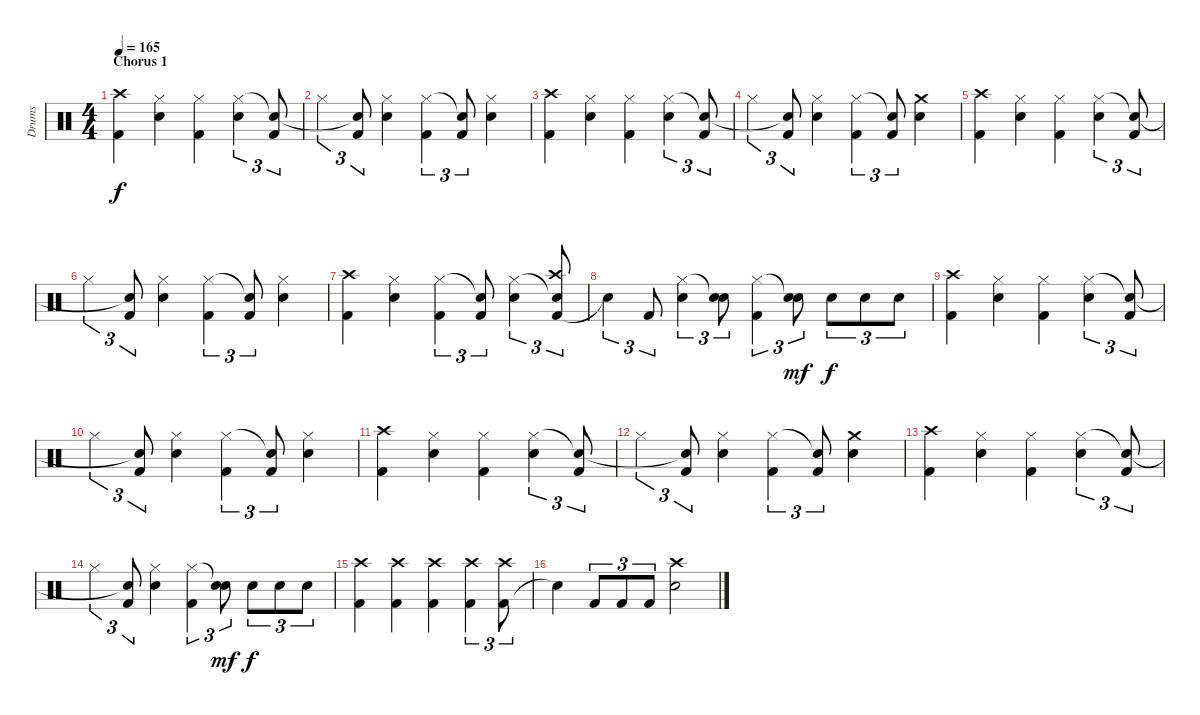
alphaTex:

\track ("Drums" "Drums") {instrument percussion}
\staff {score}
\articulation defaults
\ts (4 4)
\section ("" "Chorus 1")
\tempo 165
\clef neutral
\ks c
("Kick (hit) 2" "Crash high (hit)").4{dy f} ("Snare (hit) 2" "Hi-Hat (closed)").4 ("Kick (hit) 2" "Hi-Hat (closed)").4 ("Snare (hit) 2" "Hi-Hat (closed)").4{tu (3 2)} ("Kick (hit) 2" "Snare (hit)"{t}).8{tu (3 2)} |
"Hi-Hat (closed)".4{tu (3 2)} ("Kick (hit) 2" "Snare (hit)"{t}).8{tu (3 2)} ("Snare (hit) 2" "Hi-Hat (closed)").4 ("Kick (hit) 2" "Hi-Hat (closed)").4{tu (3 2)} ("Kick (hit) 2" "Snare (hit)"{t}).8{tu (3 2)} ("Snare (hit) 2" "Hi-Hat (closed)").4 |
("Kick (hit) 2" "Crash high (hit)").4 ("Snare (hit) 2" "Hi-Hat (closed)").4 ("Kick (hit) 2" "Hi-Hat (closed)").4 ("Snare (hit) 2" "Hi-Hat (closed)").4{tu (3 2)} ("Kick (hit) 2" "Snare (hit)"{t}).8{tu (3 2)} |
"Hi-Hat (closed)".4{tu (3 2)} ("Kick (hit) 2" "Snare (hit)"{t}).8{tu (3 2)} ("Snare (hit) 2" "Hi-Hat (closed)").4 ("Kick (hit) 2" "Hi-Hat (closed)").4{tu (3 2)} ("Kick (hit) 2" "Snare (hit)"{t}).8{tu (3 2)} ("Snare (hit) 2" "Crash medium (hit)").4 |
("Kick (hit) 2" "Crash high (hit)").4 ("Snare (hit) 2" "Hi-Hat (closed)").4 ("Kick (hit) 2" "Hi-Hat (closed)").4 ("Snare (hit) 2" "Hi-Hat (closed)").4{tu (3 2)} ("Kick (hit) 2" "Snare (hit)"{t}).8{tu (3 2)} |
"Hi-Hat (closed)".4{tu (3 2)} ("Kick (hit) 2" "Snare (hit)"{t}).8{tu (3 2)} ("Snare (hit) 2" "Hi-Hat (closed)").4 ("Kick (hit) 2" "Hi-Hat (closed)").4{tu (3 2)} ("Kick (hit) 2" "Snare (hit)"{t}).8{tu (3 2)} ("Snare (hit) 2" "Hi-Hat (closed)").4 |
("Kick (hit) 2" "Crash high (hit)").4 ("Snare (hit) 2" "Hi-Hat (closed)").4 ("Kick (hit) 2" "Hi-Hat (closed)").4{tu (3 2)} ("Kick (hit) 2" "Snare (hit)"{t}).8{tu (3 2)} ("Snare (hit) 2" "Hi-Hat (closed)").4{tu (3 2)} ("Kick (hit) 2" "Snare (hit)"{t} "Crash high (hit)").8{tu (3 2)} |
"Snare (hit)"{t}.4{tu (3 2)} "Kick (hit) 2".8{tu (3 2)} ("Snare (hit) 2" "Hi-Hat (closed)").4{tu (3 2)} ("Snare (hit) 2" "Snare (hit)"{t}).8{tu (3 2)} ("Kick (hit) 2" "Hi-Hat (closed)").4{tu (3 2)} ("Snare (hit) 2" "Snare (hit)"{t}).8{tu (3 2) dy mf} "Snare (hit) 2".8{tu (3 2) dy f} "Snare (hit) 2".8{tu (3 2)} "Snare (hit) 2".8{tu (3 2)} |
("Kick (hit) 2" "Crash high (hit)").4 ("Snare (hit) 2" "Hi-Hat (closed)").4 ("Kick (hit) 2" "Hi-Hat (closed)").4 ("Snare (hit) 2" "Hi-Hat (closed)").4{tu (3 2)} ("Kick (hit) 2" "Snare (hit)"{t}).8{tu (3 2)} |
"Hi-Hat (closed)".4{tu (3 2)} ("Kick (hit) 2" "Snare (hit)"{t}).8{tu (3 2)} ("Snare (hit) 2" "Hi-Hat (closed)").4 ("Kick (hit) 2" "Hi-Hat (closed)").4{tu (3 2)} ("Kick (hit) 2" "Snare (hit)"{t}).8{tu (3 2)} ("Snare (hit) 2" "Hi-Hat (closed)").4 |
("Kick (hit) 2" "Crash high (hit)").4 ("Snare (hit) 2" "Hi-Hat (closed)").4 ("Kick (hit) 2" "Hi-Hat (closed)").4 ("Snare (hit) 2" "Hi-Hat (closed)").4{tu (3 2)} ("Kick (hit) 2" "Snare (hit)"{t}).8{tu (3 2)} |
"Hi-Hat (closed)".4{tu (3 2)} ("Kick (hit) 2" "Snare (hit)"{t}).8{tu (3 2)} ("Snare (hit) 2" "Hi-Hat (closed)").4 ("Kick (hit) 2" "Hi-Hat (closed)").4{tu (3 2)} ("Kick (hit) 2" "Snare (hit)"{t}).8{tu (3 2)} ("Snare (hit) 2" "Crash medium (hit)").4 |
("Kick (hit) 2" "Crash high (hit)").4 ("Snare (hit) 2" "Hi-Hat (closed)").4 ("Kick (hit) 2" "Hi-Hat (closed)").4 ("Snare (hit) 2" "Hi-Hat (closed)").4{tu (3 2)} ("Kick (hit) 2" "Snare (hit)"{t}).8{tu (3 2)} |
"Hi-Hat (closed)".4{tu (3 2)} ("Kick (hit) 2" "Snare (hit)"{t}).8{tu (3 2)} ("Snare (hit) 2" "Hi-Hat (closed)").4 ("Kick (hit) 2" "Hi-Hat (closed)").4{tu (3 2)} ("Snare (hit) 2" "Snare (hit)"{t}).8{tu (3 2) dy mf} "Snare (hit) 2".8{tu (3 2) dy f} "Snare (hit) 2".8{tu (3 2)} "Snare (hit) 2".8{tu (3 2)} |
("Kick (hit) 2" "Crash high (hit)").4 ("Kick (hit) 2" "Crash high (hit)").4 ("Kick (hit) 2" "Crash high (hit)").4 ("Kick (hit) 2" "Crash high (hit)").4{tu (3 2)} ("Kick (hit) 2" "Crash high (hit)").8{tu (3 2)} |
"Snare (hit)"{t}.4 "Kick (hit) 2".8{tu (3 2)} "Kick (hit) 2".8{tu (3 2)} "Kick (hit) 2".8{tu (3 2)} ("Snare (hit) 2" "Crash high (hit)").2
